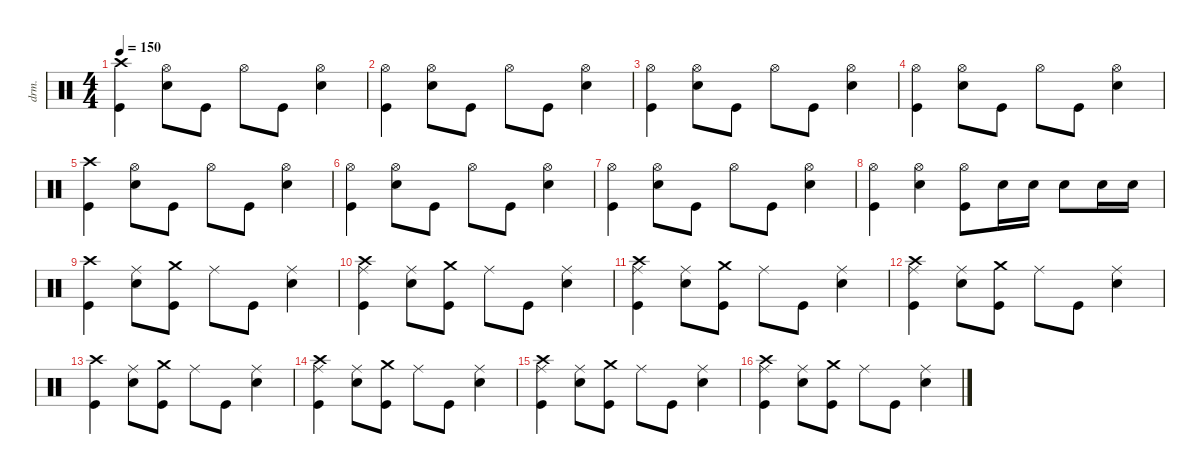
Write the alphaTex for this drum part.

\defaultSystemsLayout 4
\hideDynamics
\bracketExtendMode nobrackets
\otherSystemsTrackNameOrientation horizontal
\track ("Percussions" "drm.") {instrument percussion}
\staff {score}
\articulation defaults
\ts (4 4)
\tempo 150
\clef neutral
\ks c
("Kick (hit)" "Crash high (hit)").4{dy f beam Down} ("Snare (hit) 2" "Hi-Hat (open)").8{beam Down} "Kick (hit)".8{beam Down} "Hi-Hat (open)".8{dy mf beam Down} "Kick (hit)".8{dy f beam Down} ("Snare (hit) 2" "Hi-Hat (open)").4{beam Down} |
("Kick (hit)" "Hi-Hat (open)").4{beam Down} ("Snare (hit) 2" "Hi-Hat (open)").8{beam Down} "Kick (hit)".8{beam Down} "Hi-Hat (open)".8{dy mf beam Down} "Kick (hit)".8{dy f beam Down} ("Snare (hit) 2" "Hi-Hat (open)").4{beam Down} |
("Kick (hit)" "Hi-Hat (open)").4{beam Down} ("Snare (hit) 2" "Hi-Hat (open)").8{beam Down} "Kick (hit)".8{beam Down} "Hi-Hat (open)".8{dy mf beam Down} "Kick (hit)".8{dy f beam Down} ("Snare (hit) 2" "Hi-Hat (open)").4{beam Down} |
("Kick (hit)" "Hi-Hat (open)").4{beam Down} ("Snare (hit) 2" "Hi-Hat (open)").8{beam Down} "Kick (hit)".8{beam Down} "Hi-Hat (open)".8{dy mf beam Down} "Kick (hit)".8{dy f beam Down} ("Snare (hit) 2" "Hi-Hat (open)").4{beam Down} |
("Kick (hit)" "Crash high (hit)").4{beam Down} ("Snare (hit) 2" "Hi-Hat (open)").8{beam Down} "Kick (hit)".8{beam Down} "Hi-Hat (open)".8{dy mf beam Down} "Kick (hit)".8{dy f beam Down} ("Snare (hit) 2" "Hi-Hat (open)").4{beam Down} |
("Kick (hit)" "Hi-Hat (open)").4{beam Down} ("Snare (hit) 2" "Hi-Hat (open)").8{beam Down} "Kick (hit)".8{beam Down} "Hi-Hat (open)".8{dy mf beam Down} "Kick (hit)".8{dy f beam Down} ("Snare (hit) 2" "Hi-Hat (open)").4{beam Down} |
("Kick (hit)" "Hi-Hat (open)").4{beam Down} ("Snare (hit) 2" "Hi-Hat (open)").8{beam Down} "Kick (hit)".8{beam Down} "Hi-Hat (open)".8{dy mf beam Down} "Kick (hit)".8{dy f beam Down} ("Snare (hit) 2" "Hi-Hat (open)").4{beam Down} |
("Kick (hit)" "Hi-Hat (open)").4{beam Down} ("Snare (hit) 2" "Hi-Hat (open)").4{beam Down} ("Kick (hit)" "Hi-Hat (open)").8{beam Down} "Snare (hit) 2".16{beam Down} "Snare (hit) 2".16{beam Down} "Snare (hit) 2".8{beam Down} "Snare (hit) 2".16{beam Down} "Snare (hit) 2".16{beam Down} |
("Kick (hit)" "Crash high (hit)").4{beam Down} ("Snare (hit) 2" "Ride (middle)").8{beam Down} ("Kick (hit)" "Crash medium (hit)").8{beam Down} "Ride (middle)".8{beam Down} "Kick (hit)".8{beam Down} ("Snare (hit) 2" "Ride (middle)").4{beam Down} |
("Kick (hit)" "Ride (middle)" "Crash high (hit)").4{beam Down} ("Snare (hit) 2" "Ride (middle)").8{beam Down} ("Kick (hit)" "Crash medium (hit)").8{beam Down} "Ride (middle)".8{beam Down} "Kick (hit)".8{beam Down} ("Snare (hit) 2" "Ride (middle)").4{beam Down} |
("Kick (hit)" "Ride (middle)" "Crash high (hit)").4{beam Down} ("Snare (hit) 2" "Ride (middle)").8{beam Down} ("Kick (hit)" "Crash medium (hit)").8{beam Down} "Ride (middle)".8{beam Down} "Kick (hit)".8{beam Down} ("Snare (hit) 2" "Ride (middle)").4{beam Down} |
("Kick (hit)" "Ride (middle)" "Crash high (hit)").4{beam Down} ("Snare (hit) 2" "Ride (middle)").8{beam Down} ("Kick (hit)" "Crash medium (hit)").8{beam Down} "Ride (middle)".8{beam Down} "Kick (hit)".8{beam Down} ("Snare (hit) 2" "Ride (middle)").4{beam Down} |
("Kick (hit)" "Crash high (hit)").4{beam Down} ("Snare (hit) 2" "Ride (middle)").8{beam Down} ("Kick (hit)" "Crash medium (hit)").8{beam Down} "Ride (middle)".8{beam Down} "Kick (hit)".8{beam Down} ("Snare (hit) 2" "Ride (middle)").4{beam Down} |
("Kick (hit)" "Ride (middle)" "Crash high (hit)").4{beam Down} ("Snare (hit) 2" "Ride (middle)").8{beam Down} ("Kick (hit)" "Crash medium (hit)").8{beam Down} "Ride (middle)".8{beam Down} "Kick (hit)".8{beam Down} ("Snare (hit) 2" "Ride (middle)").4{beam Down} |
("Kick (hit)" "Ride (middle)" "Crash high (hit)").4{beam Down} ("Snare (hit) 2" "Ride (middle)").8{beam Down} ("Kick (hit)" "Crash medium (hit)").8{beam Down} "Ride (middle)".8{beam Down} "Kick (hit)".8{beam Down} ("Snare (hit) 2" "Ride (middle)").4{beam Down} |
("Kick (hit)" "Ride (middle)" "Crash high (hit)").4{beam Down} ("Snare (hit) 2" "Ride (middle)").8{beam Down} ("Kick (hit)" "Crash medium (hit)").8{beam Down} "Ride (middle)".8{beam Down} "Kick (hit)".8{beam Down} ("Snare (hit) 2" "Ride (middle)").4{beam Down}
